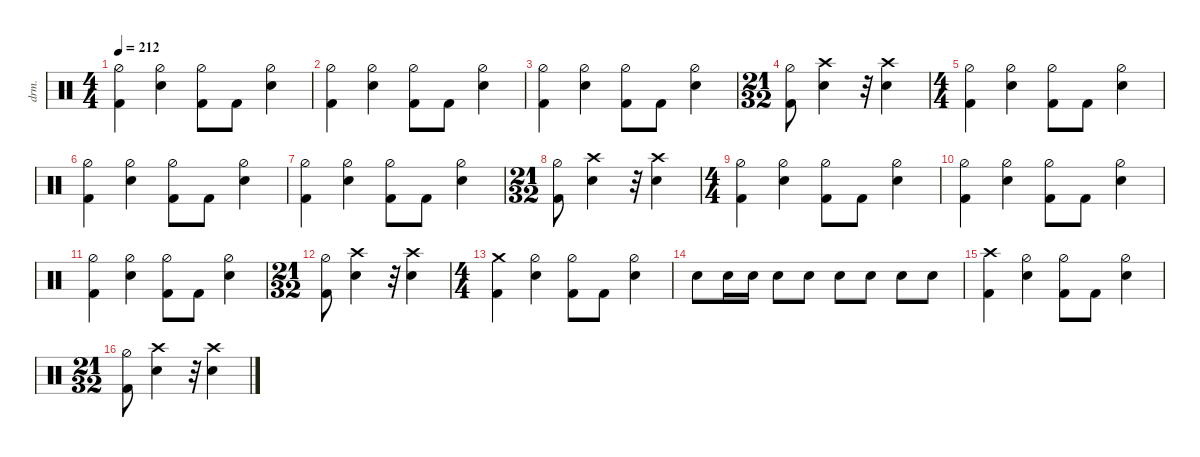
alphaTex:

\defaultSystemsLayout 4
\hideDynamics
\bracketExtendMode nobrackets
\track ("Drums" "drm.") {defaultSystemsLayout 4 multiBarRest instrument percussion}
\staff
\articulation defaults
\ts (4 4)
\beaming (8 2 2 2 2)
\tempo 212
\clef neutral
\ks c
("Kick (hit) 2" "Hi-Hat (half)").4{dy f} ("Hi-Hat (half)" "Snare (hit) 2").4 ("Hi-Hat (half)" "Kick (hit) 2").8 "Kick (hit) 2".8 ("Hi-Hat (half)" "Snare (hit) 2").4 |
("Kick (hit) 2" "Hi-Hat (half)").4 ("Hi-Hat (half)" "Snare (hit) 2").4 ("Hi-Hat (half)" "Kick (hit) 2").8 "Kick (hit) 2".8 ("Hi-Hat (half)" "Snare (hit) 2").4 |
("Kick (hit) 2" "Hi-Hat (half)").4 ("Hi-Hat (half)" "Snare (hit) 2").4 ("Hi-Hat (half)" "Kick (hit) 2").8 "Kick (hit) 2".8 ("Hi-Hat (half)" "Snare (hit) 2").4 |
\ts (21 32)
\beaming (8 3 2)
("Kick (hit) 2" "Hi-Hat (half)").8 ("Snare (hit) 2" "Crash high (hit)").4 r.32 ("Snare (hit) 2" "Crash high (hit)").4 |
\ts (4 4)
\beaming (8 2 2 2 2)
("Kick (hit) 2" "Hi-Hat (half)").4 ("Hi-Hat (half)" "Snare (hit) 2").4 ("Hi-Hat (half)" "Kick (hit) 2").8 "Kick (hit) 2".8 ("Hi-Hat (half)" "Snare (hit) 2").4 |
("Kick (hit) 2" "Hi-Hat (half)").4 ("Hi-Hat (half)" "Snare (hit) 2").4 ("Hi-Hat (half)" "Kick (hit) 2").8 "Kick (hit) 2".8 ("Hi-Hat (half)" "Snare (hit) 2").4 |
("Kick (hit) 2" "Hi-Hat (half)").4 ("Hi-Hat (half)" "Snare (hit) 2").4 ("Hi-Hat (half)" "Kick (hit) 2").8 "Kick (hit) 2".8 ("Hi-Hat (half)" "Snare (hit) 2").4 |
\ts (21 32)
\beaming (8 3 2)
("Kick (hit) 2" "Hi-Hat (half)").8 ("Snare (hit) 2" "Crash high (hit)").4 r.32 ("Snare (hit) 2" "Crash high (hit)").4 |
\ts (4 4)
\beaming (8 2 2 2 2)
("Kick (hit) 2" "Hi-Hat (half)").4 ("Hi-Hat (half)" "Snare (hit) 2").4 ("Hi-Hat (half)" "Kick (hit) 2").8 "Kick (hit) 2".8 ("Hi-Hat (half)" "Snare (hit) 2").4 |
("Kick (hit) 2" "Hi-Hat (half)").4 ("Hi-Hat (half)" "Snare (hit) 2").4 ("Hi-Hat (half)" "Kick (hit) 2").8 "Kick (hit) 2".8 ("Hi-Hat (half)" "Snare (hit) 2").4 |
("Kick (hit) 2" "Hi-Hat (half)").4 ("Hi-Hat (half)" "Snare (hit) 2").4 ("Hi-Hat (half)" "Kick (hit) 2").8 "Kick (hit) 2".8 ("Hi-Hat (half)" "Snare (hit) 2").4 |
\ts (21 32)
\beaming (8 3 2)
("Kick (hit) 2" "Hi-Hat (half)").8 ("Snare (hit) 2" "Crash high (hit)").4 r.32 ("Snare (hit) 2" "Crash high (hit)").4 |
\ts (4 4)
\beaming (8 2 2 2 2)
("Crash medium (hit)" "Kick (hit) 2").4 ("Hi-Hat (half)" "Snare (hit) 2").4 ("Hi-Hat (half)" "Kick (hit) 2").8 "Kick (hit) 2".8 ("Hi-Hat (half)" "Snare (hit) 2").4 |
"Snare (hit) 2".8 "Snare (hit) 2".16 "Snare (hit) 2".16 "Snare (hit) 2".8 "Snare (hit) 2".8 "Snare (hit) 2".8 "Snare (hit) 2".8 "Snare (hit) 2".8 "Snare (hit) 2".8 |
("Crash high (hit)" "Kick (hit) 2").4 ("Hi-Hat (half)" "Snare (hit) 2").4 ("Hi-Hat (half)" "Kick (hit) 2").8 "Kick (hit) 2".8 ("Hi-Hat (half)" "Snare (hit) 2").4 |
\ts (21 32)
\beaming (8 3 2)
("Kick (hit) 2" "Hi-Hat (half)").8 ("Snare (hit) 2" "Crash high (hit)").4 r.32 ("Snare (hit) 2" "Crash high (hit)").4
